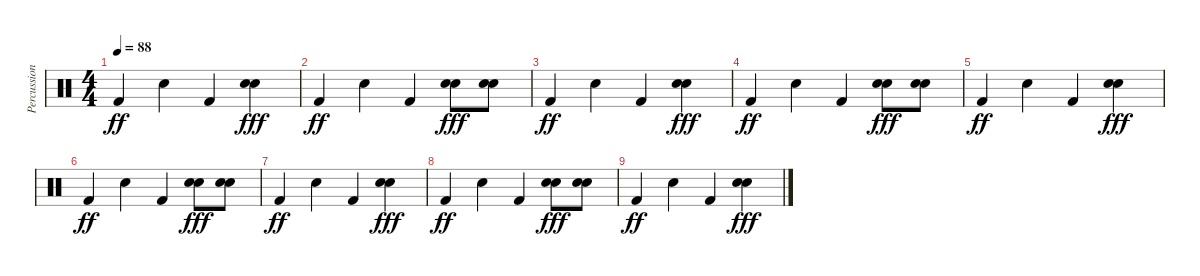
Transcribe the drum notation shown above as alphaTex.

\track ("Percussion" "Percussion") {instrument percussion}
\staff {score}
\articulation defaults
\ts (4 4)
\tempo 88
\clef neutral
\ks c "Kick (hit) 2".4{dy ff} "Electric Snare (hit)".4 "Kick (hit) 2".4
("Electric Snare (hit)" "Hand Clap (hit)").4{dy fff} |
"Kick (hit) 2".4{dy ff} "Electric Snare (hit)".4 "Kick (hit) 2".4 ("Electric Snare (hit)" "Hand Clap (hit)").8{dy fff} ("Electric Snare (hit)" "Hand Clap (hit)").8 |
"Kick (hit) 2".4{dy ff} "Electric Snare (hit)".4 "Kick (hit) 2".4 ("Electric Snare (hit)" "Hand Clap (hit)").4{dy fff} |
"Kick (hit) 2".4{dy ff} "Electric Snare (hit)".4 "Kick (hit) 2".4 ("Electric Snare (hit)" "Hand Clap (hit)").8{dy fff} ("Electric Snare (hit)" "Hand Clap (hit)").8 |
"Kick (hit) 2".4{dy ff} "Electric Snare (hit)".4 "Kick (hit) 2".4 ("Electric Snare (hit)" "Hand Clap (hit)").4{dy fff} |
"Kick (hit) 2".4{dy ff} "Electric Snare (hit)".4 "Kick (hit) 2".4 ("Electric Snare (hit)" "Hand Clap (hit)").8{dy fff} ("Electric Snare (hit)" "Hand Clap (hit)").8 |
"Kick (hit) 2".4{dy ff} "Electric Snare (hit)".4 "Kick (hit) 2".4 ("Electric Snare (hit)" "Hand Clap (hit)").4{dy fff} |
"Kick (hit) 2".4{dy ff} "Electric Snare (hit)".4 "Kick (hit) 2".4 ("Electric Snare (hit)" "Hand Clap (hit)").8{dy fff} ("Electric Snare (hit)" "Hand Clap (hit)").8 |
"Kick (hit) 2".4{dy ff} "Electric Snare (hit)".4 "Kick (hit) 2".4 ("Electric Snare (hit)" "Hand Clap (hit)").4{dy fff}
